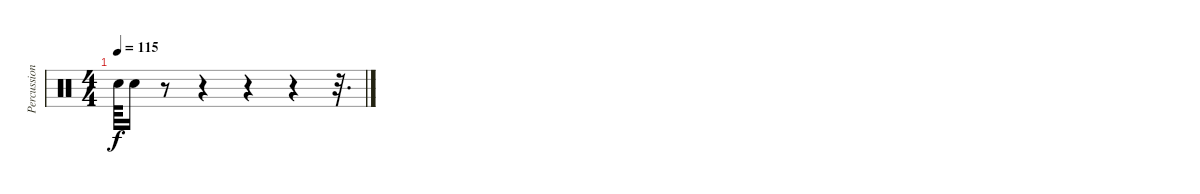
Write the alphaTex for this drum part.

\track ("Percussion" "Percussion") {instrument percussion}
\staff {score}
\articulation defaults
\ts (4 4)
\tempo 115
\clef neutral
\ks c "Snare (hit) 2".64{dy f} "Snare (hit) 2".16
r.8 r.4 r.4 r.4 r.32{d}
